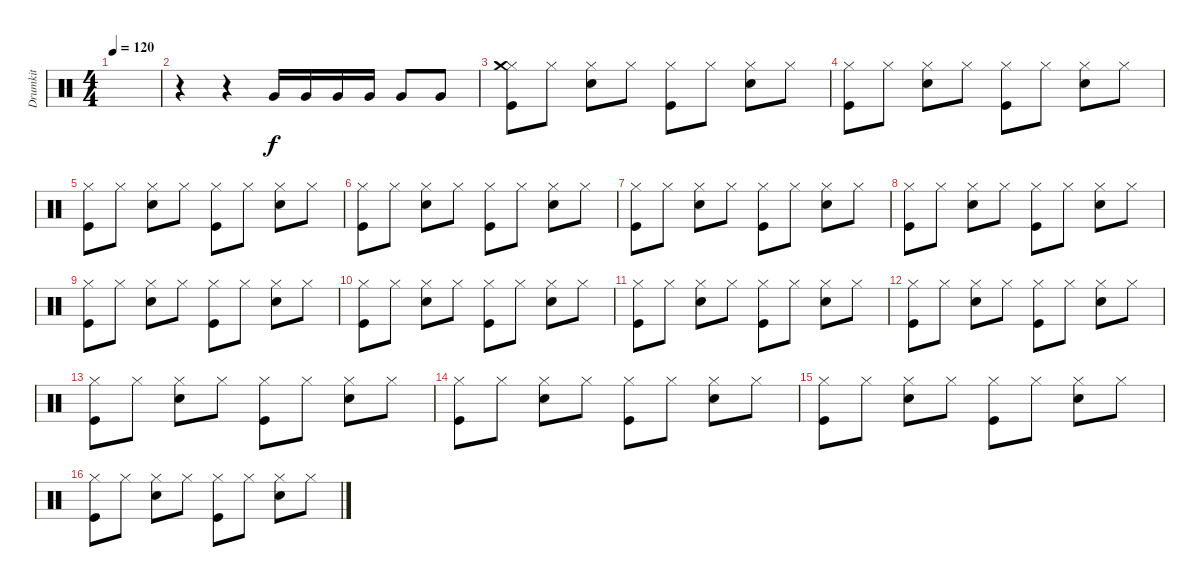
\track ("Drumkit" "Drumkit") {instrument percussion}
\staff {score}
\articulation defaults
\ts (4 4)
\tempo 120
\clef neutral
\ks c
|
r.4 r.4 "Very Low Tom (hit)".16 "Very Low Tom (hit)".16 "Very Low Tom (hit)".16 "Very Low Tom (hit)".16 "Very Low Tom (hit)".8 "Very Low Tom (hit)".8 |
("Hi-Hat (closed)" "Kick (hit)" "Crash medium (hit)").8 "Hi-Hat (closed)".8 ("Hi-Hat (closed)" "Snare (hit) 2").8 "Hi-Hat (closed)".8 ("Hi-Hat (closed)" "Kick (hit)").8 "Hi-Hat (closed)".8 ("Hi-Hat (closed)" "Snare (hit) 2").8 "Hi-Hat (closed)".8 |
("Hi-Hat (closed)" "Kick (hit)").8 "Hi-Hat (closed)".8 ("Hi-Hat (closed)" "Snare (hit) 2").8 "Hi-Hat (closed)".8 ("Hi-Hat (closed)" "Kick (hit)").8 "Hi-Hat (closed)".8 ("Hi-Hat (closed)" "Snare (hit) 2").8 "Hi-Hat (closed)".8 |
("Hi-Hat (closed)" "Kick (hit)").8 "Hi-Hat (closed)".8 ("Hi-Hat (closed)" "Snare (hit) 2").8 "Hi-Hat (closed)".8 ("Hi-Hat (closed)" "Kick (hit)").8 "Hi-Hat (closed)".8 ("Hi-Hat (closed)" "Snare (hit) 2").8 "Hi-Hat (closed)".8 |
("Hi-Hat (closed)" "Kick (hit)").8 "Hi-Hat (closed)".8 ("Hi-Hat (closed)" "Snare (hit) 2").8 "Hi-Hat (closed)".8 ("Hi-Hat (closed)" "Kick (hit)").8 "Hi-Hat (closed)".8 ("Hi-Hat (closed)" "Snare (hit) 2").8 "Hi-Hat (closed)".8 |
("Hi-Hat (closed)" "Kick (hit)").8 "Hi-Hat (closed)".8 ("Hi-Hat (closed)" "Snare (hit) 2").8 "Hi-Hat (closed)".8 ("Hi-Hat (closed)" "Kick (hit)").8 "Hi-Hat (closed)".8 ("Hi-Hat (closed)" "Snare (hit) 2").8 "Hi-Hat (closed)".8 |
("Hi-Hat (closed)" "Kick (hit)").8 "Hi-Hat (closed)".8 ("Hi-Hat (closed)" "Snare (hit) 2").8 "Hi-Hat (closed)".8 ("Hi-Hat (closed)" "Kick (hit)").8 "Hi-Hat (closed)".8 ("Hi-Hat (closed)" "Snare (hit) 2").8 "Hi-Hat (closed)".8 |
("Hi-Hat (closed)" "Kick (hit)").8 "Hi-Hat (closed)".8 ("Hi-Hat (closed)" "Snare (hit) 2").8 "Hi-Hat (closed)".8 ("Hi-Hat (closed)" "Kick (hit)").8 "Hi-Hat (closed)".8 ("Hi-Hat (closed)" "Snare (hit) 2").8 "Hi-Hat (closed)".8 |
("Hi-Hat (closed)" "Kick (hit)").8 "Hi-Hat (closed)".8 ("Hi-Hat (closed)" "Snare (hit) 2").8 "Hi-Hat (closed)".8 ("Hi-Hat (closed)" "Kick (hit)").8 "Hi-Hat (closed)".8 ("Hi-Hat (closed)" "Snare (hit) 2").8 "Hi-Hat (closed)".8 |
("Hi-Hat (closed)" "Kick (hit)").8 "Hi-Hat (closed)".8 ("Hi-Hat (closed)" "Snare (hit) 2").8 "Hi-Hat (closed)".8 ("Hi-Hat (closed)" "Kick (hit)").8 "Hi-Hat (closed)".8 ("Hi-Hat (closed)" "Snare (hit) 2").8 "Hi-Hat (closed)".8 |
("Hi-Hat (closed)" "Kick (hit)").8 "Hi-Hat (closed)".8 ("Hi-Hat (closed)" "Snare (hit) 2").8 "Hi-Hat (closed)".8 ("Hi-Hat (closed)" "Kick (hit)").8 "Hi-Hat (closed)".8 ("Hi-Hat (closed)" "Snare (hit) 2").8 "Hi-Hat (closed)".8 |
("Hi-Hat (closed)" "Kick (hit)").8 "Hi-Hat (closed)".8 ("Hi-Hat (closed)" "Snare (hit) 2").8 "Hi-Hat (closed)".8 ("Hi-Hat (closed)" "Kick (hit)").8 "Hi-Hat (closed)".8 ("Hi-Hat (closed)" "Snare (hit) 2").8 "Hi-Hat (closed)".8 |
("Hi-Hat (closed)" "Kick (hit)").8 "Hi-Hat (closed)".8 ("Hi-Hat (closed)" "Snare (hit) 2").8 "Hi-Hat (closed)".8 ("Hi-Hat (closed)" "Kick (hit)").8 "Hi-Hat (closed)".8 ("Hi-Hat (closed)" "Snare (hit) 2").8 "Hi-Hat (closed)".8 |
("Hi-Hat (closed)" "Kick (hit)").8 "Hi-Hat (closed)".8 ("Hi-Hat (closed)" "Snare (hit) 2").8 "Hi-Hat (closed)".8 ("Hi-Hat (closed)" "Kick (hit)").8 "Hi-Hat (closed)".8 ("Hi-Hat (closed)" "Snare (hit) 2").8 "Hi-Hat (closed)".8 |
("Hi-Hat (closed)" "Kick (hit)").8 "Hi-Hat (closed)".8 ("Hi-Hat (closed)" "Snare (hit) 2").8 "Hi-Hat (closed)".8 ("Hi-Hat (closed)" "Kick (hit)").8 "Hi-Hat (closed)".8 ("Hi-Hat (closed)" "Snare (hit) 2").8 "Hi-Hat (closed)".8
